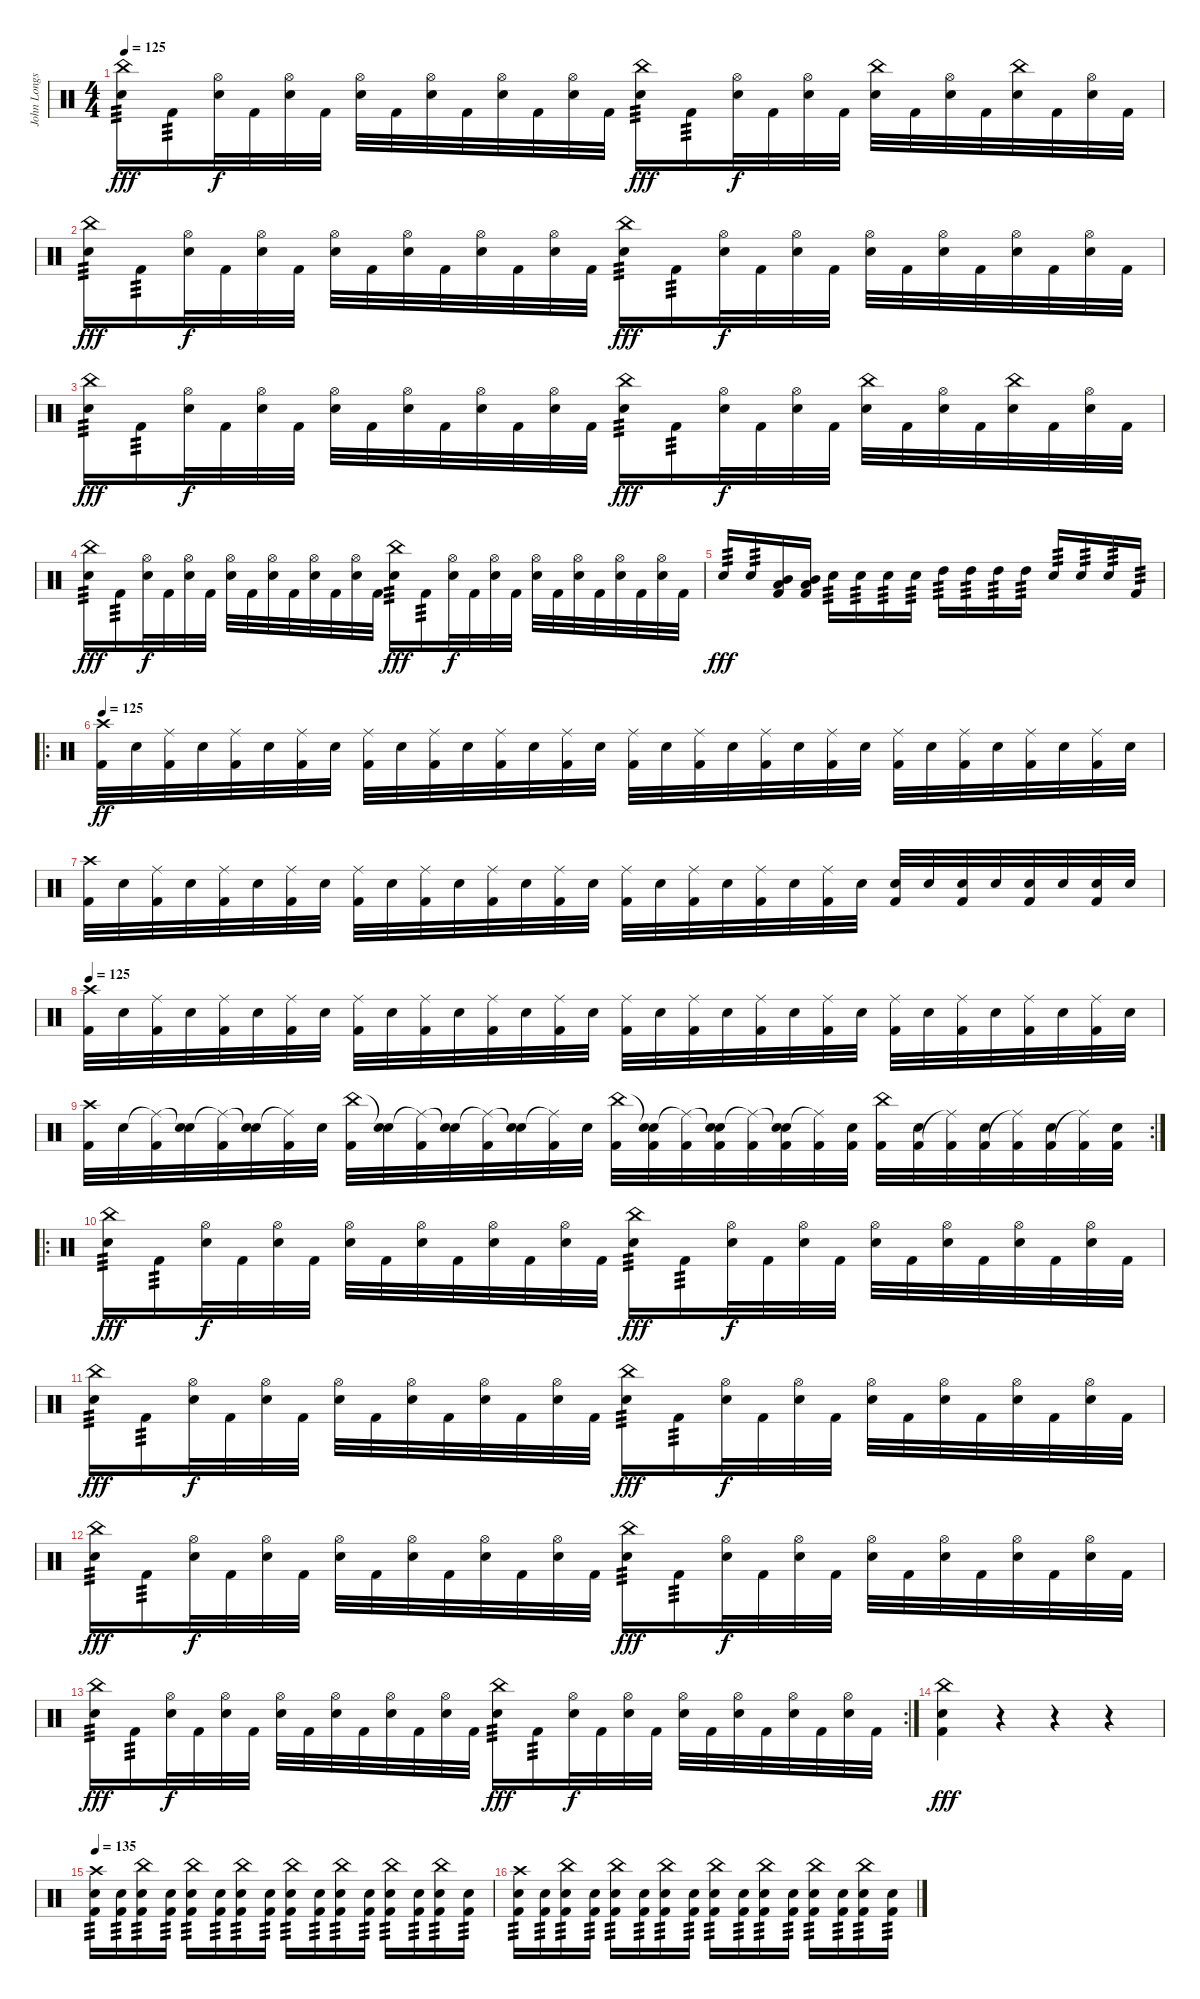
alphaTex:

\track ("John Longstreth" "John Longs") {instrument percussion}
\staff {score}
\articulation defaults
\ts (4 4)
\tempo 125
\clef neutral
\ks c
("China (hit)" "Snare (hit) 2").16{tp 3 dy fff} "Kick (hit) 2".16{tp 3} ("Hi-Hat (open)" "Snare (hit) 2").32{dy f} "Kick (hit) 2".32 ("Hi-Hat (open)" "Snare (hit) 2").32 "Kick (hit) 2".32 ("Hi-Hat (open)" "Snare (hit) 2").32 "Kick (hit) 2".32 ("Hi-Hat (open)" "Snare (hit) 2").32 "Kick (hit) 2".32 ("Hi-Hat (open)" "Snare (hit) 2").32 "Kick (hit) 2".32 ("Hi-Hat (open)" "Snare (hit) 2").32 "Kick (hit) 2".32 ("China (hit)" "Snare (hit) 2").16{tp 3 dy fff} "Kick (hit) 2".16{tp 3} ("Hi-Hat (open)" "Snare (hit) 2").32{dy f} "Kick (hit) 2".32 ("Hi-Hat (open)" "Snare (hit) 2").32 "Kick (hit) 2".32 ("China (hit)" "Snare (hit) 2").32 "Kick (hit) 2".32 ("Hi-Hat (open)" "Snare (hit) 2").32 "Kick (hit) 2".32 ("China (hit)" "Snare (hit) 2").32 "Kick (hit) 2".32 ("Hi-Hat (open)" "Snare (hit) 2").32 "Kick (hit) 2".32 |
("China (hit)" "Snare (hit) 2").16{tp 3 dy fff} "Kick (hit) 2".16{tp 3} ("Hi-Hat (open)" "Snare (hit) 2").32{dy f} "Kick (hit) 2".32 ("Hi-Hat (open)" "Snare (hit) 2").32 "Kick (hit) 2".32 ("Hi-Hat (open)" "Snare (hit) 2").32 "Kick (hit) 2".32 ("Hi-Hat (open)" "Snare (hit) 2").32 "Kick (hit) 2".32 ("Hi-Hat (open)" "Snare (hit) 2").32 "Kick (hit) 2".32 ("Hi-Hat (open)" "Snare (hit) 2").32 "Kick (hit) 2".32 ("China (hit)" "Snare (hit) 2").16{tp 3 dy fff} "Kick (hit) 2".16{tp 3} ("Hi-Hat (open)" "Snare (hit) 2").32{dy f} "Kick (hit) 2".32 ("Hi-Hat (open)" "Snare (hit) 2").32 "Kick (hit) 2".32 ("Hi-Hat (open)" "Snare (hit) 2").32 "Kick (hit) 2".32 ("Hi-Hat (open)" "Snare (hit) 2").32 "Kick (hit) 2".32 ("Hi-Hat (open)" "Snare (hit) 2").32 "Kick (hit) 2".32 ("Hi-Hat (open)" "Snare (hit) 2").32 "Kick (hit) 2".32 |
("China (hit)" "Snare (hit) 2").16{tp 3 dy fff} "Kick (hit) 2".16{tp 3} ("Hi-Hat (open)" "Snare (hit) 2").32{dy f} "Kick (hit) 2".32 ("Hi-Hat (open)" "Snare (hit) 2").32 "Kick (hit) 2".32 ("Hi-Hat (open)" "Snare (hit) 2").32 "Kick (hit) 2".32 ("Hi-Hat (open)" "Snare (hit) 2").32 "Kick (hit) 2".32 ("Hi-Hat (open)" "Snare (hit) 2").32 "Kick (hit) 2".32 ("Hi-Hat (open)" "Snare (hit) 2").32 "Kick (hit) 2".32 ("China (hit)" "Snare (hit) 2").16{tp 3 dy fff} "Kick (hit) 2".16{tp 3} ("Hi-Hat (open)" "Snare (hit) 2").32{dy f} "Kick (hit) 2".32 ("Hi-Hat (open)" "Snare (hit) 2").32 "Kick (hit) 2".32 ("China (hit)" "Snare (hit) 2").32 "Kick (hit) 2".32 ("Hi-Hat (open)" "Snare (hit) 2").32 "Kick (hit) 2".32 ("China (hit)" "Snare (hit) 2").32 "Kick (hit) 2".32 ("Hi-Hat (open)" "Snare (hit) 2").32 "Kick (hit) 2".32 |
("China (hit)" "Snare (hit) 2").16{tp 3 dy fff} "Kick (hit) 2".16{tp 3} ("Hi-Hat (open)" "Snare (hit) 2").32{dy f} "Kick (hit) 2".32 ("Hi-Hat (open)" "Snare (hit) 2").32 "Kick (hit) 2".32 ("Hi-Hat (open)" "Snare (hit) 2").32 "Kick (hit) 2".32 ("Hi-Hat (open)" "Snare (hit) 2").32 "Kick (hit) 2".32 ("Hi-Hat (open)" "Snare (hit) 2").32 "Kick (hit) 2".32 ("Hi-Hat (open)" "Snare (hit) 2").32 "Kick (hit) 2".32 ("China (hit)" "Snare (hit) 2").16{tp 3 dy fff} "Kick (hit) 2".16{tp 3} ("Hi-Hat (open)" "Snare (hit) 2").32{dy f} "Kick (hit) 2".32 ("Hi-Hat (open)" "Snare (hit) 2").32 "Kick (hit) 2".32 ("Hi-Hat (open)" "Snare (hit) 2").32 "Kick (hit) 2".32 ("Hi-Hat (open)" "Snare (hit) 2").32 "Kick (hit) 2".32 ("Hi-Hat (open)" "Snare (hit) 2").32 "Kick (hit) 2".32 ("Hi-Hat (open)" "Snare (hit) 2").32 "Kick (hit) 2".32 |
"Snare (hit) 2".16{tp 3 dy fff} "Snare (hit) 2".16{tp 3} ("Mid Tom (hit)" "Low Tom (hit)" "Kick (hit) 2").16 ("Mid Tom (hit)" "Low Tom (hit)" "Kick (hit) 2").16 "Snare (hit) 2".16{tp 3} "Snare (hit) 2".16{tp 3} "Snare (hit) 2".16{tp 3} "Snare (hit) 2".16{tp 3} "High Tom (hit)".16{tp 3} "High Tom (hit)".16{tp 3} "High Tom (hit)".16{tp 3} "High Tom (hit)".16{tp 3} "Snare (hit) 2".16{tp 3} "Snare (hit) 2".16{tp 3} "Snare (hit) 2".16{tp 3} "Kick (hit) 2".16{tp 3} |
\ro
\tempo 125
("Crash high (hit)" "Kick (hit) 2").32{dy ff} "Snare (hit) 2".32 ("Ride (middle)" "Kick (hit) 2").32 "Snare (hit) 2".32 ("Ride (middle)" "Kick (hit) 2").32 "Snare (hit) 2".32 ("Ride (middle)" "Kick (hit) 2").32 "Snare (hit) 2".32 ("Ride (middle)" "Kick (hit) 2").32 "Snare (hit) 2".32 ("Ride (middle)" "Kick (hit) 2").32 "Snare (hit) 2".32 ("Ride (middle)" "Kick (hit) 2").32 "Snare (hit) 2".32 ("Ride (middle)" "Kick (hit) 2").32 "Snare (hit) 2".32 ("Ride (middle)" "Kick (hit) 2").32 "Snare (hit) 2".32 ("Ride (middle)" "Kick (hit) 2").32 "Snare (hit) 2".32 ("Ride (middle)" "Kick (hit) 2").32 "Snare (hit) 2".32 ("Ride (middle)" "Kick (hit) 2").32 "Snare (hit) 2".32 ("Ride (middle)" "Kick (hit) 2").32 "Snare (hit) 2".32 ("Ride (middle)" "Kick (hit) 2").32 "Snare (hit) 2".32 ("Ride (middle)" "Kick (hit) 2").32 "Snare (hit) 2".32 ("Ride (middle)" "Kick (hit) 2").32 "Snare (hit) 2".32 |
("Crash high (hit)" "Kick (hit) 2").32 "Snare (hit) 2".32 ("Ride (middle)" "Kick (hit) 2").32 "Snare (hit) 2".32 ("Ride (middle)" "Kick (hit) 2").32 "Snare (hit) 2".32 ("Ride (middle)" "Kick (hit) 2").32 "Snare (hit) 2".32 ("Ride (middle)" "Kick (hit) 2").32 "Snare (hit) 2".32 ("Ride (middle)" "Kick (hit) 2").32 "Snare (hit) 2".32 ("Ride (middle)" "Kick (hit) 2").32 "Snare (hit) 2".32 ("Ride (middle)" "Kick (hit) 2").32 "Snare (hit) 2".32 ("Ride (middle)" "Kick (hit) 2").32 "Snare (hit) 2".32 ("Ride (middle)" "Kick (hit) 2").32 "Snare (hit) 2".32 ("Ride (middle)" "Kick (hit) 2").32 "Snare (hit) 2".32 ("Ride (middle)" "Kick (hit) 2").32 "Snare (hit) 2".32 ("Snare (hit) 2" "Kick (hit) 2").32 "Snare (hit) 2".32 ("Snare (hit) 2" "Kick (hit) 2").32 "Snare (hit) 2".32 ("Snare (hit) 2" "Kick (hit) 2").32 "Snare (hit) 2".32 ("Snare (hit) 2" "Kick (hit) 2").32 "Snare (hit) 2".32 |
\tempo 125
("Crash high (hit)" "Kick (hit) 2").32 "Snare (hit) 2".32 ("Ride (middle)" "Kick (hit) 2").32 "Snare (hit) 2".32 ("Ride (middle)" "Kick (hit) 2").32 "Snare (hit) 2".32 ("Ride (middle)" "Kick (hit) 2").32 "Snare (hit) 2".32 ("Ride (middle)" "Kick (hit) 2").32 "Snare (hit) 2".32 ("Ride (middle)" "Kick (hit) 2").32 "Snare (hit) 2".32 ("Ride (middle)" "Kick (hit) 2").32 "Snare (hit) 2".32 ("Ride (middle)" "Kick (hit) 2").32 "Snare (hit) 2".32 ("Ride (middle)" "Kick (hit) 2").32 "Snare (hit) 2".32 ("Ride (middle)" "Kick (hit) 2").32 "Snare (hit) 2".32 ("Ride (middle)" "Kick (hit) 2").32 "Snare (hit) 2".32 ("Ride (middle)" "Kick (hit) 2").32 "Snare (hit) 2".32 ("Ride (middle)" "Kick (hit) 2").32 "Snare (hit) 2".32 ("Ride (middle)" "Kick (hit) 2").32 "Snare (hit) 2".32 ("Ride (middle)" "Kick (hit) 2").32 "Snare (hit) 2".32 ("Ride (middle)" "Kick (hit) 2").32 "Snare (hit) 2".32 |
\rc 2
("Crash high (hit)" "Kick (hit) 2").32 "Snare (hit) 2".32 ("Ride (middle)"{t} "Kick (hit) 2").32 ("Snare (hit)"{t} "Snare (hit) 2").32 ("Ride (middle)"{t} "Kick (hit) 2").32 ("Snare (hit)"{t} "Snare (hit) 2").32 ("Ride (middle)"{t} "Kick (hit) 2").32 "Snare (hit) 2".32 ("China (hit)" "Kick (hit) 2").32 ("Snare (hit)"{t} "Snare (hit) 2").32 ("Ride (middle)"{t} "Kick (hit) 2").32 ("Snare (hit)"{t} "Snare (hit) 2").32 ("Ride (middle)"{t} "Kick (hit) 2").32 ("Snare (hit)"{t} "Snare (hit) 2").32 ("Ride (middle)"{t} "Kick (hit) 2").32 "Snare (hit) 2".32 ("China (hit)" "Kick (hit) 2").32 ("Snare (hit)"{t} "Kick (hit) 2" "Snare (hit) 2").32 ("Ride (middle)"{t} "Kick (hit) 2").32 ("Snare (hit)"{t} "Kick (hit) 2" "Snare (hit) 2").32 ("Ride (middle)"{t} "Kick (hit) 2").32 ("Snare (hit)"{t} "Kick (hit) 2" "Snare (hit) 2").32 ("Ride (middle)"{t} "Kick (hit) 2").32 ("Kick (hit) 2" "Snare (hit) 2").32 ("China (hit)" "Kick (hit) 2").32 ("Kick (hit) 2" "Snare (hit) 2").32 ("Ride (middle)"{t} "Kick (hit) 2").32 ("Kick (hit) 2" "Snare (hit) 2").32 ("Ride (middle)"{t} "Kick (hit) 2").32 ("Kick (hit) 2" "Snare (hit) 2").32 ("Ride (middle)"{t} "Kick (hit) 2").32 ("Kick (hit) 2" "Snare (hit) 2").32 |
\ro
("China (hit)" "Snare (hit) 2").16{tp 3 dy fff} "Kick (hit) 2".16{tp 3} ("Hi-Hat (open)" "Snare (hit) 2").32{dy f} "Kick (hit) 2".32 ("Hi-Hat (open)" "Snare (hit) 2").32 "Kick (hit) 2".32 ("Hi-Hat (open)" "Snare (hit) 2").32 "Kick (hit) 2".32 ("Hi-Hat (open)" "Snare (hit) 2").32 "Kick (hit) 2".32 ("Hi-Hat (open)" "Snare (hit) 2").32 "Kick (hit) 2".32 ("Hi-Hat (open)" "Snare (hit) 2").32 "Kick (hit) 2".32 ("China (hit)" "Snare (hit) 2").16{tp 3 dy fff} "Kick (hit) 2".16{tp 3} ("Hi-Hat (open)" "Snare (hit) 2").32{dy f} "Kick (hit) 2".32 ("Hi-Hat (open)" "Snare (hit) 2").32 "Kick (hit) 2".32 ("Hi-Hat (open)" "Snare (hit) 2").32 "Kick (hit) 2".32 ("Hi-Hat (open)" "Snare (hit) 2").32 "Kick (hit) 2".32 ("Hi-Hat (open)" "Snare (hit) 2").32 "Kick (hit) 2".32 ("Hi-Hat (open)" "Snare (hit) 2").32 "Kick (hit) 2".32 |
("China (hit)" "Snare (hit) 2").16{tp 3 dy fff} "Kick (hit) 2".16{tp 3} ("Hi-Hat (open)" "Snare (hit) 2").32{dy f} "Kick (hit) 2".32 ("Hi-Hat (open)" "Snare (hit) 2").32 "Kick (hit) 2".32 ("Hi-Hat (open)" "Snare (hit) 2").32 "Kick (hit) 2".32 ("Hi-Hat (open)" "Snare (hit) 2").32 "Kick (hit) 2".32 ("Hi-Hat (open)" "Snare (hit) 2").32 "Kick (hit) 2".32 ("Hi-Hat (open)" "Snare (hit) 2").32 "Kick (hit) 2".32 ("China (hit)" "Snare (hit) 2").16{tp 3 dy fff} "Kick (hit) 2".16{tp 3} ("Hi-Hat (open)" "Snare (hit) 2").32{dy f} "Kick (hit) 2".32 ("Hi-Hat (open)" "Snare (hit) 2").32 "Kick (hit) 2".32 ("Hi-Hat (open)" "Snare (hit) 2").32 "Kick (hit) 2".32 ("Hi-Hat (open)" "Snare (hit) 2").32 "Kick (hit) 2".32 ("Hi-Hat (open)" "Snare (hit) 2").32 "Kick (hit) 2".32 ("Hi-Hat (open)" "Snare (hit) 2").32 "Kick (hit) 2".32 |
("China (hit)" "Snare (hit) 2").16{tp 3 dy fff} "Kick (hit) 2".16{tp 3} ("Hi-Hat (open)" "Snare (hit) 2").32{dy f} "Kick (hit) 2".32 ("Hi-Hat (open)" "Snare (hit) 2").32 "Kick (hit) 2".32 ("Hi-Hat (open)" "Snare (hit) 2").32 "Kick (hit) 2".32 ("Hi-Hat (open)" "Snare (hit) 2").32 "Kick (hit) 2".32 ("Hi-Hat (open)" "Snare (hit) 2").32 "Kick (hit) 2".32 ("Hi-Hat (open)" "Snare (hit) 2").32 "Kick (hit) 2".32 ("China (hit)" "Snare (hit) 2").16{tp 3 dy fff} "Kick (hit) 2".16{tp 3} ("Hi-Hat (open)" "Snare (hit) 2").32{dy f} "Kick (hit) 2".32 ("Hi-Hat (open)" "Snare (hit) 2").32 "Kick (hit) 2".32 ("Hi-Hat (open)" "Snare (hit) 2").32 "Kick (hit) 2".32 ("Hi-Hat (open)" "Snare (hit) 2").32 "Kick (hit) 2".32 ("Hi-Hat (open)" "Snare (hit) 2").32 "Kick (hit) 2".32 ("Hi-Hat (open)" "Snare (hit) 2").32 "Kick (hit) 2".32 |
\rc 2
("China (hit)" "Snare (hit) 2").16{tp 3 dy fff} "Kick (hit) 2".16{tp 3} ("Hi-Hat (open)" "Snare (hit) 2").32{dy f} "Kick (hit) 2".32 ("Hi-Hat (open)" "Snare (hit) 2").32 "Kick (hit) 2".32 ("Hi-Hat (open)" "Snare (hit) 2").32 "Kick (hit) 2".32 ("Hi-Hat (open)" "Snare (hit) 2").32 "Kick (hit) 2".32 ("Hi-Hat (open)" "Snare (hit) 2").32 "Kick (hit) 2".32 ("Hi-Hat (open)" "Snare (hit) 2").32 "Kick (hit) 2".32 ("China (hit)" "Snare (hit) 2").16{tp 3 dy fff} "Kick (hit) 2".16{tp 3} ("Hi-Hat (open)" "Snare (hit) 2").32{dy f} "Kick (hit) 2".32 ("Hi-Hat (open)" "Snare (hit) 2").32 "Kick (hit) 2".32 ("Hi-Hat (open)" "Snare (hit) 2").32 "Kick (hit) 2".32 ("Hi-Hat (open)" "Snare (hit) 2").32 "Kick (hit) 2".32 ("Hi-Hat (open)" "Snare (hit) 2").32 "Kick (hit) 2".32 ("Hi-Hat (open)" "Snare (hit) 2").32 "Kick (hit) 2".32 |
("China (hit)" "Kick (hit) 2" "Snare (hit) 2").4{dy fff} r.4 r.4 r.4 |
\tempo 135
("Crash high (hit)" "Snare (hit) 2" "Kick (hit) 2").16{tp 3} ("Snare (hit) 2" "Kick (hit) 2").16{tp 3} ("China (hit)" "Snare (hit) 2" "Kick (hit) 2").16{tp 3} ("Snare (hit) 2" "Kick (hit) 2").16{tp 3} ("China (hit)" "Snare (hit) 2" "Kick (hit) 2").16{tp 3} ("Snare (hit) 2" "Kick (hit) 2").16{tp 3} ("China (hit)" "Snare (hit) 2" "Kick (hit) 2").16{tp 3} ("Snare (hit) 2" "Kick (hit) 2").16{tp 3} ("China (hit)" "Snare (hit) 2" "Kick (hit) 2").16{tp 3} ("Snare (hit) 2" "Kick (hit) 2").16{tp 3} ("China (hit)" "Snare (hit) 2" "Kick (hit) 2").16{tp 3} ("Snare (hit) 2" "Kick (hit) 2").16{tp 3} ("China (hit)" "Snare (hit) 2" "Kick (hit) 2").16{tp 3} ("Snare (hit) 2" "Kick (hit) 2").16{tp 3} ("China (hit)" "Snare (hit) 2" "Kick (hit) 2").16{tp 3} ("Snare (hit) 2" "Kick (hit) 2").16{tp 3} |
("Crash high (hit)" "Snare (hit) 2" "Kick (hit) 2").16{tp 3} ("Snare (hit) 2" "Kick (hit) 2").16{tp 3} ("China (hit)" "Snare (hit) 2" "Kick (hit) 2").16{tp 3} ("Snare (hit) 2" "Kick (hit) 2").16{tp 3} ("China (hit)" "Snare (hit) 2" "Kick (hit) 2").16{tp 3} ("Snare (hit) 2" "Kick (hit) 2").16{tp 3} ("China (hit)" "Snare (hit) 2" "Kick (hit) 2").16{tp 3} ("Snare (hit) 2" "Kick (hit) 2").16{tp 3} ("China (hit)" "Snare (hit) 2" "Kick (hit) 2").16{tp 3} ("Snare (hit) 2" "Kick (hit) 2").16{tp 3} ("China (hit)" "Snare (hit) 2" "Kick (hit) 2").16{tp 3} ("Snare (hit) 2" "Kick (hit) 2").16{tp 3} ("China (hit)" "Snare (hit) 2" "Kick (hit) 2").16{tp 3} ("Snare (hit) 2" "Kick (hit) 2").16{tp 3} ("China (hit)" "Snare (hit) 2" "Kick (hit) 2").16{tp 3} ("Snare (hit) 2" "Kick (hit) 2").16{tp 3}
